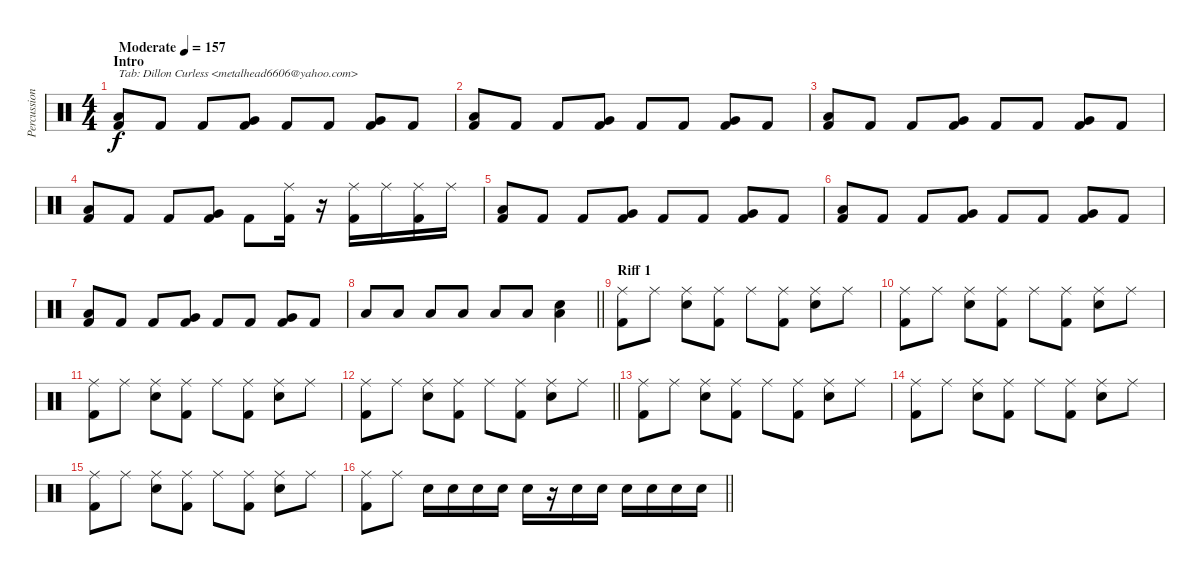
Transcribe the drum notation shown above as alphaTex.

\track ("Percussion" "Percussion") {instrument percussion}
\staff {score}
\articulation defaults
\ts (4 4)
\section ("" "Intro")
\tempo (157 "Moderate")
\clef neutral
\ks c
("Low Floor Tom (hit)" "Kick (hit) 2").8{txt "Tab: Dillon Curless <metalhead6606@yahoo.com>" dy f} "Kick (hit) 2".8 "Kick (hit) 2".8 ("Very Low Tom (hit)" "Kick (hit) 2").8 "Kick (hit) 2".8 "Kick (hit) 2".8 ("Very Low Tom (hit)" "Kick (hit) 2").8 "Kick (hit) 2".8 |
("Low Floor Tom (hit)" "Kick (hit) 2").8 "Kick (hit) 2".8 "Kick (hit) 2".8 ("Very Low Tom (hit)" "Kick (hit) 2").8 "Kick (hit) 2".8 "Kick (hit) 2".8 ("Very Low Tom (hit)" "Kick (hit) 2").8 "Kick (hit) 2".8 |
("Low Floor Tom (hit)" "Kick (hit) 2").8 "Kick (hit) 2".8 "Kick (hit) 2".8 ("Very Low Tom (hit)" "Kick (hit) 2").8 "Kick (hit) 2".8 "Kick (hit) 2".8 ("Very Low Tom (hit)" "Kick (hit) 2").8 "Kick (hit) 2".8 |
("Low Floor Tom (hit)" "Kick (hit) 2").8 "Kick (hit) 2".8 "Kick (hit) 2".8 ("Very Low Tom (hit)" "Kick (hit) 2").8 "Kick (hit) 2".8 ("Kick (hit) 2" "Ride (middle)").16 r.16 ("Kick (hit) 2" "Ride (middle)").16 "Ride (middle)".16 ("Kick (hit) 2" "Ride (middle)").16 "Ride (middle)".16 |
("Low Floor Tom (hit)" "Kick (hit) 2").8 "Kick (hit) 2".8 "Kick (hit) 2".8 ("Very Low Tom (hit)" "Kick (hit) 2").8 "Kick (hit) 2".8 "Kick (hit) 2".8 ("Very Low Tom (hit)" "Kick (hit) 2").8 "Kick (hit) 2".8 |
("Low Floor Tom (hit)" "Kick (hit) 2").8 "Kick (hit) 2".8 "Kick (hit) 2".8 ("Very Low Tom (hit)" "Kick (hit) 2").8 "Kick (hit) 2".8 "Kick (hit) 2".8 ("Very Low Tom (hit)" "Kick (hit) 2").8 "Kick (hit) 2".8 |
("Low Floor Tom (hit)" "Kick (hit) 2").8 "Kick (hit) 2".8 "Kick (hit) 2".8 ("Very Low Tom (hit)" "Kick (hit) 2").8 "Kick (hit) 2".8 "Kick (hit) 2".8 ("Very Low Tom (hit)" "Kick (hit) 2").8 "Kick (hit) 2".8 |
\barLineRight lightlight "Low Floor Tom (hit)".8 "Low Floor Tom (hit)".8 "Low Floor Tom (hit)".8 "Low Floor Tom (hit)".8 "Low Floor Tom (hit)".8 "Low Floor Tom (hit)".8
("Snare (hit) 2" "Low Floor Tom (hit)").4 |
\section ("" "Riff 1")
("Kick (hit) 2" "Ride (middle)").8 "Ride (middle)".8 ("Snare (hit) 2" "Ride (middle)").8 ("Kick (hit) 2" "Ride (middle)").8 "Ride (middle)".8 ("Kick (hit) 2" "Ride (middle)").8 ("Snare (hit) 2" "Ride (middle)").8 "Ride (middle)".8 |
("Kick (hit) 2" "Ride (middle)").8 "Ride (middle)".8 ("Snare (hit) 2" "Ride (middle)").8 ("Kick (hit) 2" "Ride (middle)").8 "Ride (middle)".8 ("Kick (hit) 2" "Ride (middle)").8 ("Snare (hit) 2" "Ride (middle)").8 "Ride (middle)".8 |
("Kick (hit) 2" "Ride (middle)").8 "Ride (middle)".8 ("Snare (hit) 2" "Ride (middle)").8 ("Kick (hit) 2" "Ride (middle)").8 "Ride (middle)".8 ("Kick (hit) 2" "Ride (middle)").8 ("Snare (hit) 2" "Ride (middle)").8 "Ride (middle)".8 |
\barLineRight lightlight
("Kick (hit) 2" "Ride (middle)").8 "Ride (middle)".8 ("Snare (hit) 2" "Ride (middle)").8 ("Kick (hit) 2" "Ride (middle)").8 "Ride (middle)".8 ("Kick (hit) 2" "Ride (middle)").8 ("Snare (hit) 2" "Ride (middle)").8 "Ride (middle)".8 |
("Kick (hit) 2" "Ride (middle)").8 "Ride (middle)".8 ("Snare (hit) 2" "Ride (middle)").8 ("Kick (hit) 2" "Ride (middle)").8 "Ride (middle)".8 ("Kick (hit) 2" "Ride (middle)").8 ("Snare (hit) 2" "Ride (middle)").8 "Ride (middle)".8 |
("Kick (hit) 2" "Ride (middle)").8 "Ride (middle)".8 ("Snare (hit) 2" "Ride (middle)").8 ("Kick (hit) 2" "Ride (middle)").8 "Ride (middle)".8 ("Kick (hit) 2" "Ride (middle)").8 ("Snare (hit) 2" "Ride (middle)").8 "Ride (middle)".8 |
("Kick (hit) 2" "Ride (middle)").8 "Ride (middle)".8 ("Snare (hit) 2" "Ride (middle)").8 ("Kick (hit) 2" "Ride (middle)").8 "Ride (middle)".8 ("Kick (hit) 2" "Ride (middle)").8 ("Snare (hit) 2" "Ride (middle)").8 "Ride (middle)".8 |
\barLineRight lightlight
("Kick (hit) 2" "Ride (middle)").8 "Ride (middle)".8 "Snare (hit) 2".16 "Snare (hit) 2".16 "Snare (hit) 2".16 "Snare (hit) 2".16 "Snare (hit) 2".16 r.16 "Snare (hit) 2".16 "Snare (hit) 2".16 "Snare (hit) 2".16 "Snare (hit) 2".16 "Snare (hit) 2".16 "Snare (hit) 2".16
